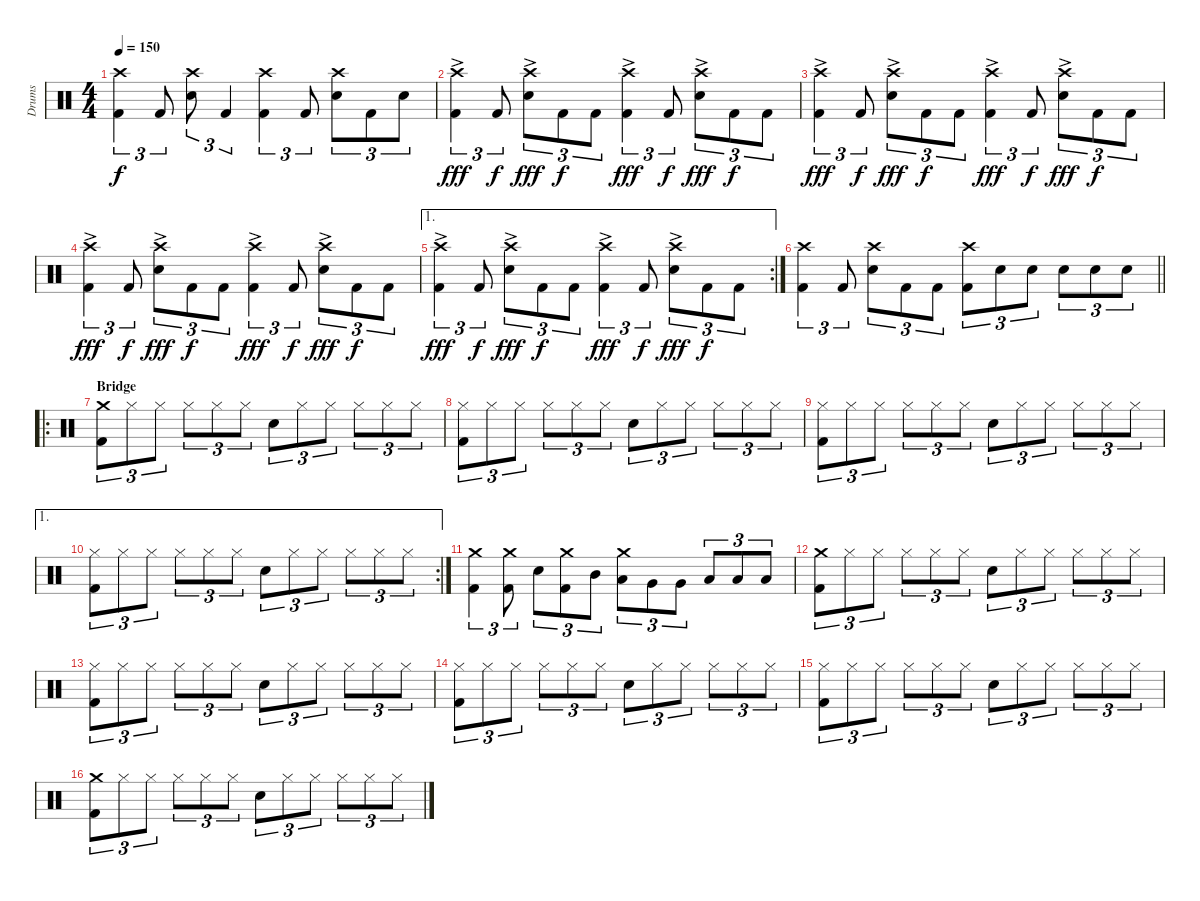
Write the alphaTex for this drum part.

\track ("Drums" "Drums") {instrument percussion}
\staff {score}
\articulation defaults
\ts (4 4)
\tempo 150
\clef neutral
\ks c
("Crash high (hit)" "Kick (hit) 2").4{tu (3 2) dy f} "Kick (hit) 2".8{tu (3 2)} ("Crash high (hit)" "Electric Snare (hit)").8{tu (3 2)} "Kick (hit) 2".4{tu (3 2)} ("Crash high (hit)" "Kick (hit) 2").4{tu (3 2)} "Kick (hit) 2".8{tu (3 2)} ("Electric Snare (hit)" "Crash high (hit)").8{tu (3 2)} "Kick (hit) 2".8{tu (3 2)} "Electric Snare (hit)".8{tu (3 2)} |
("Crash high (hit)"{ac} "Kick (hit) 2").4{tu (3 2) dy fff} "Kick (hit) 2".8{tu (3 2) dy f} ("Crash high (hit)"{ac} "Electric Snare (hit)").8{tu (3 2) dy fff} "Kick (hit) 2".8{tu (3 2) dy f} "Kick (hit) 2".8{tu (3 2)} ("Crash high (hit)"{ac} "Kick (hit) 2").4{tu (3 2) dy fff} "Kick (hit) 2".8{tu (3 2) dy f} ("Electric Snare (hit)" "Crash high (hit)"{ac}).8{tu (3 2) dy fff} "Kick (hit) 2".8{tu (3 2) dy f} "Kick (hit) 2".8{tu (3 2)} |
("Crash high (hit)"{ac} "Kick (hit) 2").4{tu (3 2) dy fff} "Kick (hit) 2".8{tu (3 2) dy f} ("Crash high (hit)"{ac} "Electric Snare (hit)").8{tu (3 2) dy fff} "Kick (hit) 2".8{tu (3 2) dy f} "Kick (hit) 2".8{tu (3 2)} ("Crash high (hit)"{ac} "Kick (hit) 2").4{tu (3 2) dy fff} "Kick (hit) 2".8{tu (3 2) dy f} ("Electric Snare (hit)" "Crash high (hit)"{ac}).8{tu (3 2) dy fff} "Kick (hit) 2".8{tu (3 2) dy f} "Kick (hit) 2".8{tu (3 2)} |
("Crash high (hit)"{ac} "Kick (hit) 2").4{tu (3 2) dy fff} "Kick (hit) 2".8{tu (3 2) dy f} ("Crash high (hit)"{ac} "Electric Snare (hit)").8{tu (3 2) dy fff} "Kick (hit) 2".8{tu (3 2) dy f} "Kick (hit) 2".8{tu (3 2)} ("Crash high (hit)"{ac} "Kick (hit) 2").4{tu (3 2) dy fff} "Kick (hit) 2".8{tu (3 2) dy f} ("Electric Snare (hit)" "Crash high (hit)"{ac}).8{tu (3 2) dy fff} "Kick (hit) 2".8{tu (3 2) dy f} "Kick (hit) 2".8{tu (3 2)} |
\ae 1
\rc 2
("Crash high (hit)"{ac} "Kick (hit) 2").4{tu (3 2) dy fff} "Kick (hit) 2".8{tu (3 2) dy f} ("Crash high (hit)"{ac} "Electric Snare (hit)").8{tu (3 2) dy fff} "Kick (hit) 2".8{tu (3 2) dy f} "Kick (hit) 2".8{tu (3 2)} ("Crash high (hit)"{ac} "Kick (hit) 2").4{tu (3 2) dy fff} "Kick (hit) 2".8{tu (3 2) dy f} ("Electric Snare (hit)" "Crash high (hit)"{ac}).8{tu (3 2) dy fff} "Kick (hit) 2".8{tu (3 2) dy f} "Kick (hit) 2".8{tu (3 2)} |
\barLineRight lightlight
("Crash high (hit)" "Kick (hit) 2").4{tu (3 2)} "Kick (hit) 2".8{tu (3 2)} ("Crash high (hit)" "Electric Snare (hit)").8{tu (3 2)} "Kick (hit) 2".8{tu (3 2)} "Kick (hit) 2".8{tu (3 2)} ("Crash high (hit)" "Kick (hit) 2").8{tu (3 2)} "Electric Snare (hit)".8{tu (3 2)} "Electric Snare (hit)".8{tu (3 2)} "Electric Snare (hit)".8{tu (3 2)} "Electric Snare (hit)".8{tu (3 2)} "Electric Snare (hit)".8{tu (3 2)} |
\ro
\section ("" "Bridge")
("Crash medium (hit)" "Kick (hit) 2").8{tu (3 2)} "Hi-Hat (closed)".8{tu (3 2)} "Hi-Hat (closed)".8{tu (3 2)} "Hi-Hat (closed)".8{tu (3 2)} "Hi-Hat (closed)".8{tu (3 2)} "Hi-Hat (closed)".8{tu (3 2)} "Electric Snare (hit)".8{tu (3 2)} "Hi-Hat (closed)".8{tu (3 2)} "Hi-Hat (closed)".8{tu (3 2)} "Hi-Hat (closed)".8{tu (3 2)} "Hi-Hat (closed)".8{tu (3 2)} "Hi-Hat (closed)".8{tu (3 2)} |
("Hi-Hat (closed)" "Kick (hit) 2").8{tu (3 2)} "Hi-Hat (closed)".8{tu (3 2)} "Hi-Hat (closed)".8{tu (3 2)} "Hi-Hat (closed)".8{tu (3 2)} "Hi-Hat (closed)".8{tu (3 2)} "Hi-Hat (closed)".8{tu (3 2)} "Electric Snare (hit)".8{tu (3 2)} "Hi-Hat (closed)".8{tu (3 2)} "Hi-Hat (closed)".8{tu (3 2)} "Hi-Hat (closed)".8{tu (3 2)} "Hi-Hat (closed)".8{tu (3 2)} "Hi-Hat (closed)".8{tu (3 2)} |
("Hi-Hat (closed)" "Kick (hit) 2").8{tu (3 2)} "Hi-Hat (closed)".8{tu (3 2)} "Hi-Hat (closed)".8{tu (3 2)} "Hi-Hat (closed)".8{tu (3 2)} "Hi-Hat (closed)".8{tu (3 2)} "Hi-Hat (closed)".8{tu (3 2)} "Electric Snare (hit)".8{tu (3 2)} "Hi-Hat (closed)".8{tu (3 2)} "Hi-Hat (closed)".8{tu (3 2)} "Hi-Hat (closed)".8{tu (3 2)} "Hi-Hat (closed)".8{tu (3 2)} "Hi-Hat (closed)".8{tu (3 2)} |
\ae 1
\rc 2
("Hi-Hat (closed)" "Kick (hit) 2").8{tu (3 2)} "Hi-Hat (closed)".8{tu (3 2)} "Hi-Hat (closed)".8{tu (3 2)} "Hi-Hat (closed)".8{tu (3 2)} "Hi-Hat (closed)".8{tu (3 2)} "Hi-Hat (closed)".8{tu (3 2)} "Electric Snare (hit)".8{tu (3 2)} "Hi-Hat (closed)".8{tu (3 2)} "Hi-Hat (closed)".8{tu (3 2)} "Hi-Hat (closed)".8{tu (3 2)} "Hi-Hat (closed)".8{tu (3 2)} "Hi-Hat (closed)".8{tu (3 2)} |
("Crash medium (hit)" "Kick (hit) 2").4{tu (3 2)} ("Crash medium (hit)" "Kick (hit) 2").8{tu (3 2)} "Electric Snare (hit)".8{tu (3 2)} ("Crash medium (hit)" "Kick (hit) 2").8{tu (3 2)} "Mid Tom (hit)".8{tu (3 2)} ("Crash medium (hit)" "Low Tom (hit)").8{tu (3 2)} "Very Low Tom (hit)".8{tu (3 2)} "Very Low Tom (hit)".8{tu (3 2)} "Low Floor Tom (hit)".8{tu (3 2)} "Low Floor Tom (hit)".8{tu (3 2)} "Low Floor Tom (hit)".8{tu (3 2)} |
("Crash medium (hit)" "Kick (hit) 2").8{tu (3 2)} "Hi-Hat (closed)".8{tu (3 2)} "Hi-Hat (closed)".8{tu (3 2)} "Hi-Hat (closed)".8{tu (3 2)} "Hi-Hat (closed)".8{tu (3 2)} "Hi-Hat (closed)".8{tu (3 2)} "Electric Snare (hit)".8{tu (3 2)} "Hi-Hat (closed)".8{tu (3 2)} "Hi-Hat (closed)".8{tu (3 2)} "Hi-Hat (closed)".8{tu (3 2)} "Hi-Hat (closed)".8{tu (3 2)} "Hi-Hat (closed)".8{tu (3 2)} |
("Hi-Hat (closed)" "Kick (hit) 2").8{tu (3 2)} "Hi-Hat (closed)".8{tu (3 2)} "Hi-Hat (closed)".8{tu (3 2)} "Hi-Hat (closed)".8{tu (3 2)} "Hi-Hat (closed)".8{tu (3 2)} "Hi-Hat (closed)".8{tu (3 2)} "Electric Snare (hit)".8{tu (3 2)} "Hi-Hat (closed)".8{tu (3 2)} "Hi-Hat (closed)".8{tu (3 2)} "Hi-Hat (closed)".8{tu (3 2)} "Hi-Hat (closed)".8{tu (3 2)} "Hi-Hat (closed)".8{tu (3 2)} |
("Hi-Hat (closed)" "Kick (hit) 2").8{tu (3 2)} "Hi-Hat (closed)".8{tu (3 2)} "Hi-Hat (closed)".8{tu (3 2)} "Hi-Hat (closed)".8{tu (3 2)} "Hi-Hat (closed)".8{tu (3 2)} "Hi-Hat (closed)".8{tu (3 2)} "Electric Snare (hit)".8{tu (3 2)} "Hi-Hat (closed)".8{tu (3 2)} "Hi-Hat (closed)".8{tu (3 2)} "Hi-Hat (closed)".8{tu (3 2)} "Hi-Hat (closed)".8{tu (3 2)} "Hi-Hat (closed)".8{tu (3 2)} |
("Hi-Hat (closed)" "Kick (hit) 2").8{tu (3 2)} "Hi-Hat (closed)".8{tu (3 2)} "Hi-Hat (closed)".8{tu (3 2)} "Hi-Hat (closed)".8{tu (3 2)} "Hi-Hat (closed)".8{tu (3 2)} "Hi-Hat (closed)".8{tu (3 2)} "Electric Snare (hit)".8{tu (3 2)} "Hi-Hat (closed)".8{tu (3 2)} "Hi-Hat (closed)".8{tu (3 2)} "Hi-Hat (closed)".8{tu (3 2)} "Hi-Hat (closed)".8{tu (3 2)} "Hi-Hat (closed)".8{tu (3 2)} |
("Crash medium (hit)" "Kick (hit) 2").8{tu (3 2)} "Hi-Hat (closed)".8{tu (3 2)} "Hi-Hat (closed)".8{tu (3 2)} "Hi-Hat (closed)".8{tu (3 2)} "Hi-Hat (closed)".8{tu (3 2)} "Hi-Hat (closed)".8{tu (3 2)} "Electric Snare (hit)".8{tu (3 2)} "Hi-Hat (closed)".8{tu (3 2)} "Hi-Hat (closed)".8{tu (3 2)} "Hi-Hat (closed)".8{tu (3 2)} "Hi-Hat (closed)".8{tu (3 2)} "Hi-Hat (closed)".8{tu (3 2)}
